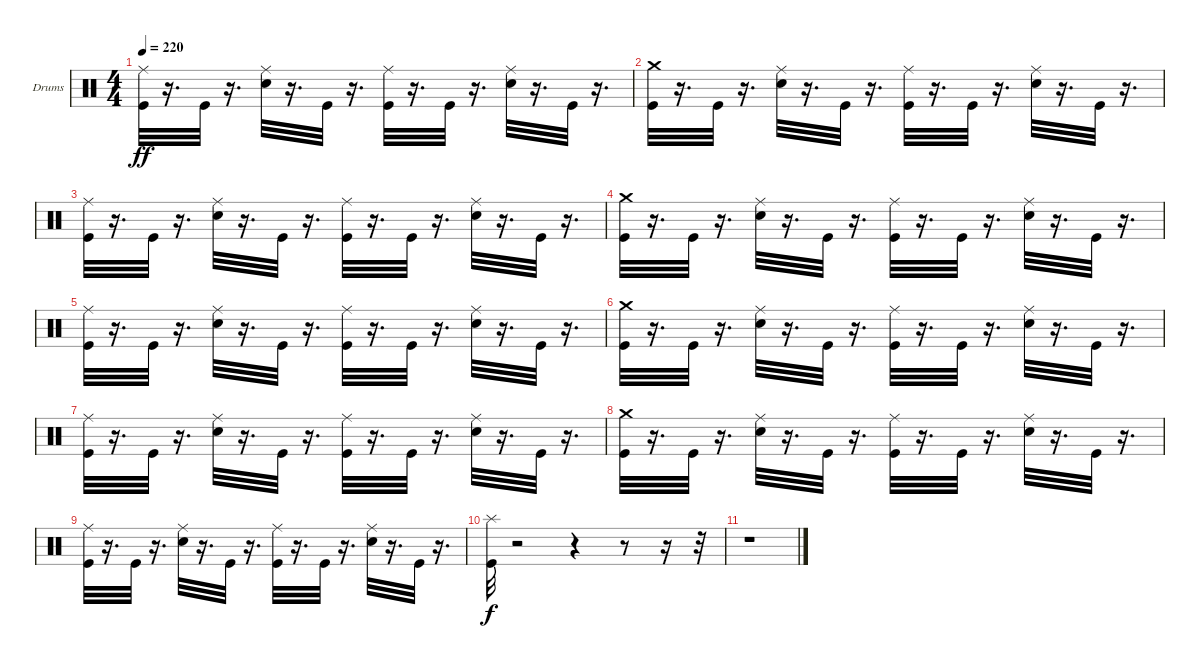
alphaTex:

\defaultSystemsLayout 4
\bracketExtendMode groupsimilarinstruments
\firstSystemTrackNameOrientation horizontal
\otherSystemsTrackNameOrientation horizontal
\track ("Дмитрий Кривенков" "Drums") {instrument percussion}
\staff {score}
\articulation defaults
\ts (4 4)
\tempo 220
\clef neutral
\ks c
("Ride (middle)" "Kick (hit)").32{dy ff} r.16{d} "Kick (hit)".32 r.16{d} ("Ride (middle)" "Snare (hit) 2").32 r.16{d} "Kick (hit)".32 r.16{d} ("Ride (middle)" "Kick (hit)").32 r.16{d} "Kick (hit)".32 r.16{d} ("Ride (middle)" "Snare (hit) 2").32 r.16{d} "Kick (hit)".32 r.16{d} |
("Crash medium (hit)" "Kick (hit)").32 r.16{d} "Kick (hit)".32 r.16{d} ("Ride (middle)" "Snare (hit) 2").32 r.16{d} "Kick (hit)".32 r.16{d} ("Ride (middle)" "Kick (hit)").32 r.16{d} "Kick (hit)".32 r.16{d} ("Ride (middle)" "Snare (hit) 2").32 r.16{d} "Kick (hit)".32 r.16{d} |
("Ride (middle)" "Kick (hit)").32 r.16{d} "Kick (hit)".32 r.16{d} ("Ride (middle)" "Snare (hit) 2").32 r.16{d} "Kick (hit)".32 r.16{d} ("Ride (middle)" "Kick (hit)").32 r.16{d} "Kick (hit)".32 r.16{d} ("Ride (middle)" "Snare (hit) 2").32 r.16{d} "Kick (hit)".32 r.16{d} |
("Crash medium (hit)" "Kick (hit)").32 r.16{d} "Kick (hit)".32 r.16{d} ("Ride (middle)" "Snare (hit) 2").32 r.16{d} "Kick (hit)".32 r.16{d} ("Ride (middle)" "Kick (hit)").32 r.16{d} "Kick (hit)".32 r.16{d} ("Ride (middle)" "Snare (hit) 2").32 r.16{d} "Kick (hit)".32 r.16{d} |
("Ride (middle)" "Kick (hit)").32 r.16{d} "Kick (hit)".32 r.16{d} ("Ride (middle)" "Snare (hit) 2").32 r.16{d} "Kick (hit)".32 r.16{d} ("Ride (middle)" "Kick (hit)").32 r.16{d} "Kick (hit)".32 r.16{d} ("Ride (middle)" "Snare (hit) 2").32 r.16{d} "Kick (hit)".32 r.16{d} |
("Crash medium (hit)" "Kick (hit)").32 r.16{d} "Kick (hit)".32 r.16{d} ("Ride (middle)" "Snare (hit) 2").32 r.16{d} "Kick (hit)".32 r.16{d} ("Ride (middle)" "Kick (hit)").32 r.16{d} "Kick (hit)".32 r.16{d} ("Ride (middle)" "Snare (hit) 2").32 r.16{d} "Kick (hit)".32 r.16{d} |
("Ride (middle)" "Kick (hit)").32 r.16{d} "Kick (hit)".32 r.16{d} ("Ride (middle)" "Snare (hit) 2").32 r.16{d} "Kick (hit)".32 r.16{d} ("Ride (middle)" "Kick (hit)").32 r.16{d} "Kick (hit)".32 r.16{d} ("Ride (middle)" "Snare (hit) 2").32 r.16{d} "Kick (hit)".32 r.16{d} |
("Crash medium (hit)" "Kick (hit)").32 r.16{d} "Kick (hit)".32 r.16{d} ("Ride (middle)" "Snare (hit) 2").32 r.16{d} "Kick (hit)".32 r.16{d} ("Ride (middle)" "Kick (hit)").32 r.16{d} "Kick (hit)".32 r.16{d} ("Ride (middle)" "Snare (hit) 2").32 r.16{d} "Kick (hit)".32 r.16{d} |
("Ride (middle)" "Kick (hit)").32 r.16{d} "Kick (hit)".32 r.16{d} ("Ride (middle)" "Snare (hit) 2").32 r.16{d} "Kick (hit)".32 r.16{d} ("Ride (middle)" "Kick (hit)").32 r.16{d} "Kick (hit)".32 r.16{d} ("Ride (middle)" "Snare (hit) 2").32 r.16{d} "Kick (hit)".32 r.16{d} |
("Splash (hit)" "Kick (hit)").32{dy f} r.2 r.4 r.8 r.16 r.32 |
r.1
